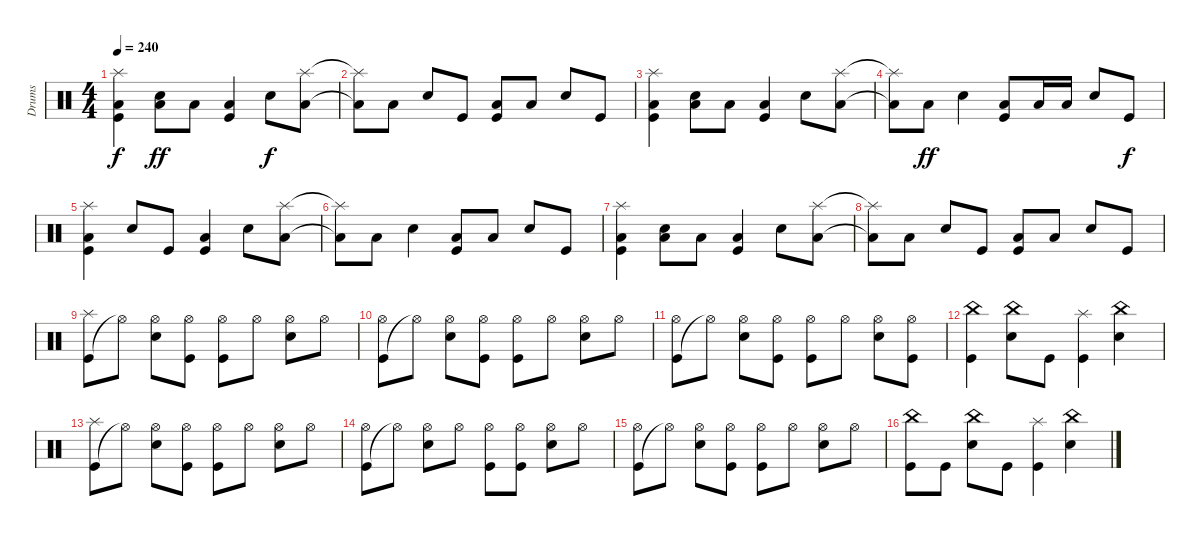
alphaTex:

\track ("Drums" "Drums") {instrument percussion}
\staff {score}
\articulation defaults
\ts (4 4)
\tempo 240
\clef neutral
\ks c
("Splash (hit)" "Low Floor Tom (hit)" "Kick (hit)").4{dy f} ("Low Floor Tom (hit)" "Snare (hit) 2").8{dy ff} "Low Floor Tom (hit)".8 ("Low Floor Tom (hit)" "Kick (hit)").4 "Snare (hit) 2".8{dy f} ("Splash (hit)" "Low Floor Tom (hit)").8 |
("Splash (hit)"{t} "Low Floor Tom (hit)"{t}).8 "Low Floor Tom (hit)".8 "Snare (hit) 2".8 "Kick (hit)".8 ("Low Floor Tom (hit)" "Kick (hit)").8 "Low Floor Tom (hit)".8 "Snare (hit) 2".8 "Kick (hit)".8 |
("Splash (hit)" "Low Floor Tom (hit)" "Kick (hit)").4 ("Low Floor Tom (hit)" "Snare (hit) 2").8 "Low Floor Tom (hit)".8 ("Low Floor Tom (hit)" "Kick (hit)").4 "Snare (hit) 2".8 ("Splash (hit)" "Low Floor Tom (hit)").8 |
("Splash (hit)"{t} "Low Floor Tom (hit)"{t}).8 "Low Floor Tom (hit)".8{dy ff} "Snare (hit) 2".4 ("Low Floor Tom (hit)" "Kick (hit)").8 "Low Floor Tom (hit)".16 "Low Floor Tom (hit)".16 "Snare (hit) 2".8 "Kick (hit)".8{dy f} |
("Splash (hit)" "Low Floor Tom (hit)" "Kick (hit)").4 "Snare (hit) 2".8 "Kick (hit)".8 ("Low Floor Tom (hit)" "Kick (hit)").4 "Snare (hit) 2".8 ("Splash (hit)" "Low Floor Tom (hit)").8 |
("Splash (hit)"{t} "Low Floor Tom (hit)"{t}).8 "Low Floor Tom (hit)".8 "Snare (hit) 2".4 ("Low Floor Tom (hit)" "Kick (hit)").8 "Low Floor Tom (hit)".8 "Snare (hit) 2".8 "Kick (hit)".8 |
("Splash (hit)" "Low Floor Tom (hit)" "Kick (hit)").4 ("Low Floor Tom (hit)" "Snare (hit) 2").8 "Low Floor Tom (hit)".8 ("Low Floor Tom (hit)" "Kick (hit)").4 "Snare (hit) 2".8 ("Splash (hit)" "Low Floor Tom (hit)").8 |
("Splash (hit)"{t} "Low Floor Tom (hit)"{t}).8 "Low Floor Tom (hit)".8 "Snare (hit) 2".8 "Kick (hit)".8 ("Low Floor Tom (hit)" "Kick (hit)").8 "Low Floor Tom (hit)".8 "Snare (hit) 2".8 "Kick (hit)".8 |
("Kick (hit)" "Splash (hit)").8 "Hi-Hat (open)"{t}.8 ("Snare (hit) 2" "Hi-Hat (open)").8 ("Kick (hit)" "Hi-Hat (open)").8 ("Kick (hit)" "Hi-Hat (open)").8 "Hi-Hat (open)".8 ("Snare (hit) 2" "Hi-Hat (open)").8 "Hi-Hat (open)".8 |
("Kick (hit)" "Hi-Hat (open)").8 "Hi-Hat (open)"{t}.8 ("Snare (hit) 2" "Hi-Hat (open)").8 ("Kick (hit)" "Hi-Hat (open)").8 ("Kick (hit)" "Hi-Hat (open)").8 "Hi-Hat (open)".8 ("Snare (hit) 2" "Hi-Hat (open)").8 "Hi-Hat (open)".8 |
("Kick (hit)" "Hi-Hat (open)").8 "Hi-Hat (open)"{t}.8 ("Snare (hit) 2" "Hi-Hat (open)").8 ("Kick (hit)" "Hi-Hat (open)").8 ("Kick (hit)" "Hi-Hat (open)").8 "Hi-Hat (open)".8 ("Snare (hit) 2" "Hi-Hat (open)").8 ("Kick (hit)" "Hi-Hat (open)").8 |
("Kick (hit)" "China (hit)").4 ("Snare (hit) 2" "China (hit)").8 "Kick (hit)".8 ("Kick (hit)" "Splash (hit)").4 ("Snare (hit) 2" "China (hit)").4 |
("Kick (hit)" "Splash (hit)").8 "Hi-Hat (open)"{t}.8 ("Snare (hit) 2" "Hi-Hat (open)").8 ("Kick (hit)" "Hi-Hat (open)").8 ("Kick (hit)" "Hi-Hat (open)").8 "Hi-Hat (open)".8 ("Snare (hit) 2" "Hi-Hat (open)").8 "Hi-Hat (open)".8 |
("Kick (hit)" "Hi-Hat (open)").8 "Hi-Hat (open)"{t}.8 ("Snare (hit) 2" "Hi-Hat (open)").8 "Hi-Hat (open)".8 ("Kick (hit)" "Hi-Hat (open)").8 ("Kick (hit)" "Hi-Hat (open)").8 ("Snare (hit) 2" "Hi-Hat (open)").8 "Hi-Hat (open)".8 |
("Kick (hit)" "Hi-Hat (open)").8 "Hi-Hat (open)"{t}.8 ("Snare (hit) 2" "Hi-Hat (open)").8 ("Kick (hit)" "Hi-Hat (open)").8 ("Kick (hit)" "Hi-Hat (open)").8 "Hi-Hat (open)".8 ("Snare (hit) 2" "Hi-Hat (open)").8 "Hi-Hat (open)".8 |
("Kick (hit)" "China (hit)").8 "Kick (hit)".8 ("Snare (hit) 2" "China (hit)").8 "Kick (hit)".8 ("Kick (hit)" "Splash (hit)").4 ("Snare (hit) 2" "China (hit)").4
